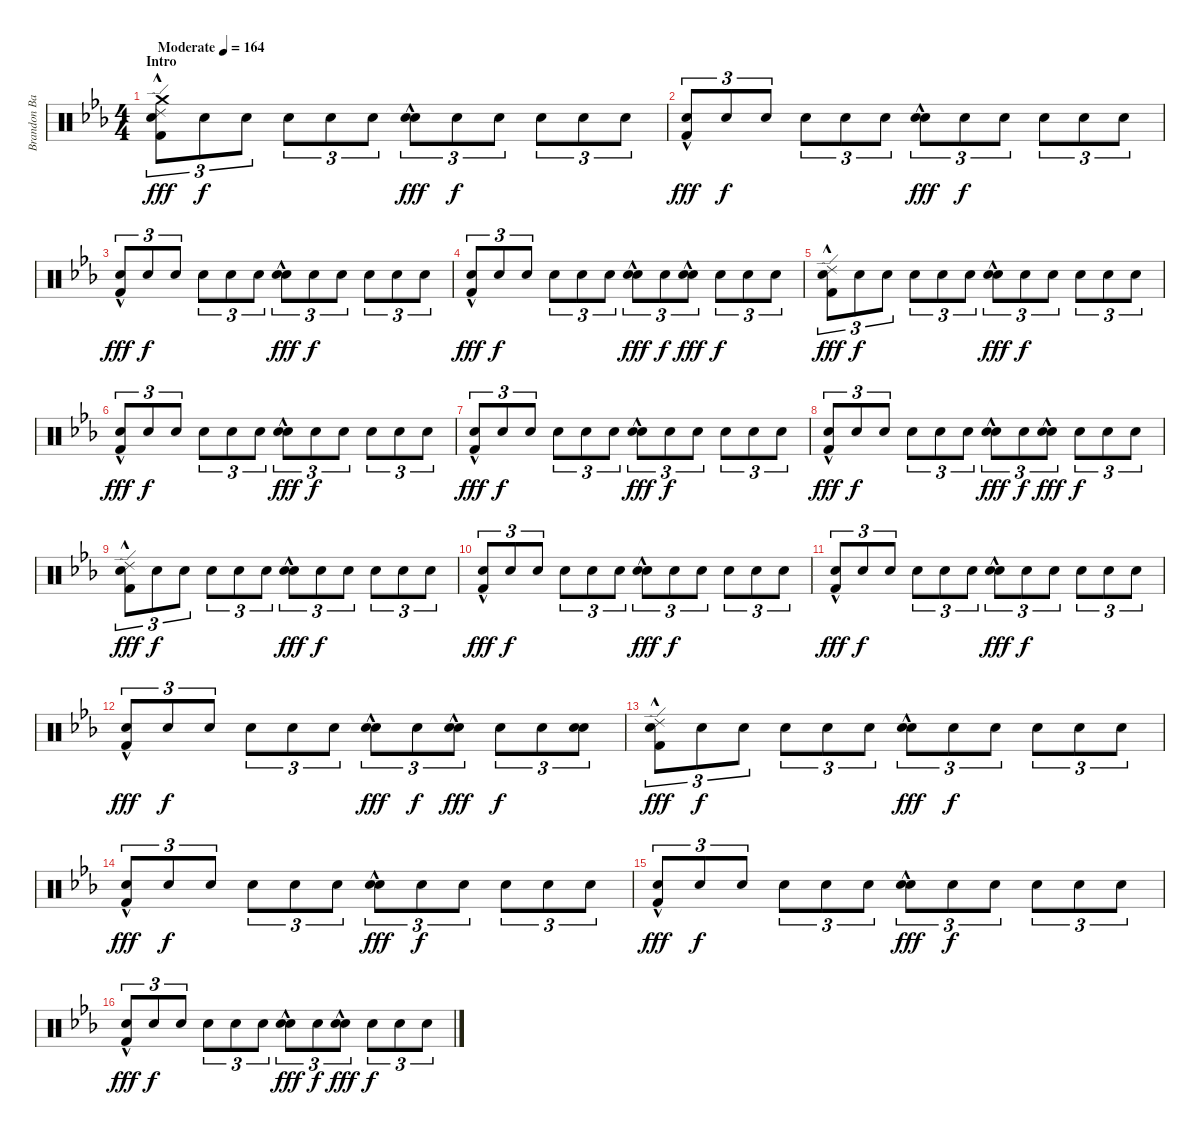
\track ("Brandon Barnes - Drums" "Brandon Ba") {instrument percussion}
\staff {score}
\articulation defaults
\ts (4 4)
\section ("" "Intro")
\tempo (164 "Moderate")
\clef neutral
\ks eb
("Ride (edge) 2" "Kick (hit) 2"{hac} "Snare (hit) 2" "Crash medium (hit)").8{tu (3 2) dy fff} "Snare (hit) 2".8{tu (3 2) dy f} "Snare (hit) 2".8{tu (3 2)} "Snare (hit) 2".8{tu (3 2)} "Snare (hit) 2".8{tu (3 2)} "Snare (hit) 2".8{tu (3 2)} ("Snare (hit) 2"{hac} "Electric Snare (hit)").8{tu (3 2) dy fff} "Snare (hit) 2".8{tu (3 2) dy f} "Snare (hit) 2".8{tu (3 2)} "Snare (hit) 2".8{tu (3 2)} "Snare (hit) 2".8{tu (3 2)} "Snare (hit) 2".8{tu (3 2)} |
("Kick (hit) 2"{hac} "Snare (hit) 2").8{tu (3 2) dy fff} "Snare (hit) 2".8{tu (3 2) dy f} "Snare (hit) 2".8{tu (3 2)} "Snare (hit) 2".8{tu (3 2)} "Snare (hit) 2".8{tu (3 2)} "Snare (hit) 2".8{tu (3 2)} ("Snare (hit) 2"{hac} "Electric Snare (hit)").8{tu (3 2) dy fff} "Snare (hit) 2".8{tu (3 2) dy f} "Snare (hit) 2".8{tu (3 2)} "Snare (hit) 2".8{tu (3 2)} "Snare (hit) 2".8{tu (3 2)} "Snare (hit) 2".8{tu (3 2)} |
("Kick (hit) 2"{hac} "Snare (hit) 2").8{tu (3 2) dy fff} "Snare (hit) 2".8{tu (3 2) dy f} "Snare (hit) 2".8{tu (3 2)} "Snare (hit) 2".8{tu (3 2)} "Snare (hit) 2".8{tu (3 2)} "Snare (hit) 2".8{tu (3 2)} ("Snare (hit) 2"{hac} "Electric Snare (hit)").8{tu (3 2) dy fff} "Snare (hit) 2".8{tu (3 2) dy f} "Snare (hit) 2".8{tu (3 2)} "Snare (hit) 2".8{tu (3 2)} "Snare (hit) 2".8{tu (3 2)} "Snare (hit) 2".8{tu (3 2)} |
("Kick (hit) 2"{hac} "Snare (hit) 2").8{tu (3 2) dy fff} "Snare (hit) 2".8{tu (3 2) dy f} "Snare (hit) 2".8{tu (3 2)} "Snare (hit) 2".8{tu (3 2)} "Snare (hit) 2".8{tu (3 2)} "Snare (hit) 2".8{tu (3 2)} ("Snare (hit) 2"{hac} "Electric Snare (hit)").8{tu (3 2) dy fff} "Snare (hit) 2".8{tu (3 2) dy f} ("Snare (hit) 2"{hac} "Electric Snare (hit)").8{tu (3 2) dy fff} "Snare (hit) 2".8{tu (3 2) dy f} "Snare (hit) 2".8{tu (3 2)} "Snare (hit) 2".8{tu (3 2)} |
("Ride (edge) 2" "Kick (hit) 2"{hac} "Snare (hit) 2").8{tu (3 2) dy fff} "Snare (hit) 2".8{tu (3 2) dy f} "Snare (hit) 2".8{tu (3 2)} "Snare (hit) 2".8{tu (3 2)} "Snare (hit) 2".8{tu (3 2)} "Snare (hit) 2".8{tu (3 2)} ("Snare (hit) 2"{hac} "Electric Snare (hit)").8{tu (3 2) dy fff} "Snare (hit) 2".8{tu (3 2) dy f} "Snare (hit) 2".8{tu (3 2)} "Snare (hit) 2".8{tu (3 2)} "Snare (hit) 2".8{tu (3 2)} "Snare (hit) 2".8{tu (3 2)} |
("Kick (hit) 2"{hac} "Snare (hit) 2").8{tu (3 2) dy fff} "Snare (hit) 2".8{tu (3 2) dy f} "Snare (hit) 2".8{tu (3 2)} "Snare (hit) 2".8{tu (3 2)} "Snare (hit) 2".8{tu (3 2)} "Snare (hit) 2".8{tu (3 2)} ("Snare (hit) 2"{hac} "Electric Snare (hit)").8{tu (3 2) dy fff} "Snare (hit) 2".8{tu (3 2) dy f} "Snare (hit) 2".8{tu (3 2)} "Snare (hit) 2".8{tu (3 2)} "Snare (hit) 2".8{tu (3 2)} "Snare (hit) 2".8{tu (3 2)} |
("Kick (hit) 2"{hac} "Snare (hit) 2").8{tu (3 2) dy fff} "Snare (hit) 2".8{tu (3 2) dy f} "Snare (hit) 2".8{tu (3 2)} "Snare (hit) 2".8{tu (3 2)} "Snare (hit) 2".8{tu (3 2)} "Snare (hit) 2".8{tu (3 2)} ("Snare (hit) 2"{hac} "Electric Snare (hit)").8{tu (3 2) dy fff} "Snare (hit) 2".8{tu (3 2) dy f} "Snare (hit) 2".8{tu (3 2)} "Snare (hit) 2".8{tu (3 2)} "Snare (hit) 2".8{tu (3 2)} "Snare (hit) 2".8{tu (3 2)} |
("Kick (hit) 2"{hac} "Snare (hit) 2").8{tu (3 2) dy fff} "Snare (hit) 2".8{tu (3 2) dy f} "Snare (hit) 2".8{tu (3 2)} "Snare (hit) 2".8{tu (3 2)} "Snare (hit) 2".8{tu (3 2)} "Snare (hit) 2".8{tu (3 2)} ("Snare (hit) 2"{hac} "Electric Snare (hit)").8{tu (3 2) dy fff} "Snare (hit) 2".8{tu (3 2) dy f} ("Snare (hit) 2"{hac} "Electric Snare (hit)").8{tu (3 2) dy fff} "Snare (hit) 2".8{tu (3 2) dy f} "Snare (hit) 2".8{tu (3 2)} "Snare (hit) 2".8{tu (3 2)} |
("Ride (edge) 2" "Kick (hit) 2"{hac} "Snare (hit) 2").8{tu (3 2) dy fff} "Snare (hit) 2".8{tu (3 2) dy f} "Snare (hit) 2".8{tu (3 2)} "Snare (hit) 2".8{tu (3 2)} "Snare (hit) 2".8{tu (3 2)} "Snare (hit) 2".8{tu (3 2)} ("Snare (hit) 2"{hac} "Electric Snare (hit)").8{tu (3 2) dy fff} "Snare (hit) 2".8{tu (3 2) dy f} "Snare (hit) 2".8{tu (3 2)} "Snare (hit) 2".8{tu (3 2)} "Snare (hit) 2".8{tu (3 2)} "Snare (hit) 2".8{tu (3 2)} |
("Kick (hit) 2"{hac} "Snare (hit) 2").8{tu (3 2) dy fff} "Snare (hit) 2".8{tu (3 2) dy f} "Snare (hit) 2".8{tu (3 2)} "Snare (hit) 2".8{tu (3 2)} "Snare (hit) 2".8{tu (3 2)} "Snare (hit) 2".8{tu (3 2)} ("Snare (hit) 2"{hac} "Electric Snare (hit)").8{tu (3 2) dy fff} "Snare (hit) 2".8{tu (3 2) dy f} "Snare (hit) 2".8{tu (3 2)} "Snare (hit) 2".8{tu (3 2)} "Snare (hit) 2".8{tu (3 2)} "Snare (hit) 2".8{tu (3 2)} |
("Kick (hit) 2"{hac} "Snare (hit) 2").8{tu (3 2) dy fff} "Snare (hit) 2".8{tu (3 2) dy f} "Snare (hit) 2".8{tu (3 2)} "Snare (hit) 2".8{tu (3 2)} "Snare (hit) 2".8{tu (3 2)} "Snare (hit) 2".8{tu (3 2)} ("Snare (hit) 2"{hac} "Electric Snare (hit)").8{tu (3 2) dy fff} "Snare (hit) 2".8{tu (3 2) dy f} "Snare (hit) 2".8{tu (3 2)} "Snare (hit) 2".8{tu (3 2)} "Snare (hit) 2".8{tu (3 2)} "Snare (hit) 2".8{tu (3 2)} |
("Kick (hit) 2"{hac} "Snare (hit) 2").8{tu (3 2) dy fff} "Snare (hit) 2".8{tu (3 2) dy f} "Snare (hit) 2".8{tu (3 2)} "Snare (hit) 2".8{tu (3 2)} "Snare (hit) 2".8{tu (3 2)} "Snare (hit) 2".8{tu (3 2)} ("Snare (hit) 2"{hac} "Electric Snare (hit)").8{tu (3 2) dy fff} "Snare (hit) 2".8{tu (3 2) dy f} ("Snare (hit) 2"{hac} "Electric Snare (hit)").8{tu (3 2) dy fff} "Snare (hit) 2".8{tu (3 2) dy f} "Snare (hit) 2".8{tu (3 2)} ("Snare (hit) 2" "Electric Snare (hit)").8{tu (3 2)} |
("Ride (edge) 2" "Kick (hit) 2"{hac} "Snare (hit) 2").8{tu (3 2) dy fff} "Snare (hit) 2".8{tu (3 2) dy f} "Snare (hit) 2".8{tu (3 2)} "Snare (hit) 2".8{tu (3 2)} "Snare (hit) 2".8{tu (3 2)} "Snare (hit) 2".8{tu (3 2)} ("Snare (hit) 2"{hac} "Electric Snare (hit)").8{tu (3 2) dy fff} "Snare (hit) 2".8{tu (3 2) dy f} "Snare (hit) 2".8{tu (3 2)} "Snare (hit) 2".8{tu (3 2)} "Snare (hit) 2".8{tu (3 2)} "Snare (hit) 2".8{tu (3 2)} |
("Kick (hit) 2"{hac} "Snare (hit) 2").8{tu (3 2) dy fff} "Snare (hit) 2".8{tu (3 2) dy f} "Snare (hit) 2".8{tu (3 2)} "Snare (hit) 2".8{tu (3 2)} "Snare (hit) 2".8{tu (3 2)} "Snare (hit) 2".8{tu (3 2)} ("Snare (hit) 2"{hac} "Electric Snare (hit)").8{tu (3 2) dy fff} "Snare (hit) 2".8{tu (3 2) dy f} "Snare (hit) 2".8{tu (3 2)} "Snare (hit) 2".8{tu (3 2)} "Snare (hit) 2".8{tu (3 2)} "Snare (hit) 2".8{tu (3 2)} |
("Kick (hit) 2"{hac} "Snare (hit) 2").8{tu (3 2) dy fff} "Snare (hit) 2".8{tu (3 2) dy f} "Snare (hit) 2".8{tu (3 2)} "Snare (hit) 2".8{tu (3 2)} "Snare (hit) 2".8{tu (3 2)} "Snare (hit) 2".8{tu (3 2)} ("Snare (hit) 2"{hac} "Electric Snare (hit)").8{tu (3 2) dy fff} "Snare (hit) 2".8{tu (3 2) dy f} "Snare (hit) 2".8{tu (3 2)} "Snare (hit) 2".8{tu (3 2)} "Snare (hit) 2".8{tu (3 2)} "Snare (hit) 2".8{tu (3 2)} |
("Kick (hit) 2"{hac} "Snare (hit) 2").8{tu (3 2) dy fff} "Snare (hit) 2".8{tu (3 2) dy f} "Snare (hit) 2".8{tu (3 2)} "Snare (hit) 2".8{tu (3 2)} "Snare (hit) 2".8{tu (3 2)} "Snare (hit) 2".8{tu (3 2)} ("Snare (hit) 2"{hac} "Electric Snare (hit)").8{tu (3 2) dy fff} "Snare (hit) 2".8{tu (3 2) dy f} ("Snare (hit) 2"{hac} "Electric Snare (hit)").8{tu (3 2) dy fff} "Snare (hit) 2".8{tu (3 2) dy f} "Snare (hit) 2".8{tu (3 2)} "Snare (hit) 2".8{tu (3 2)}
